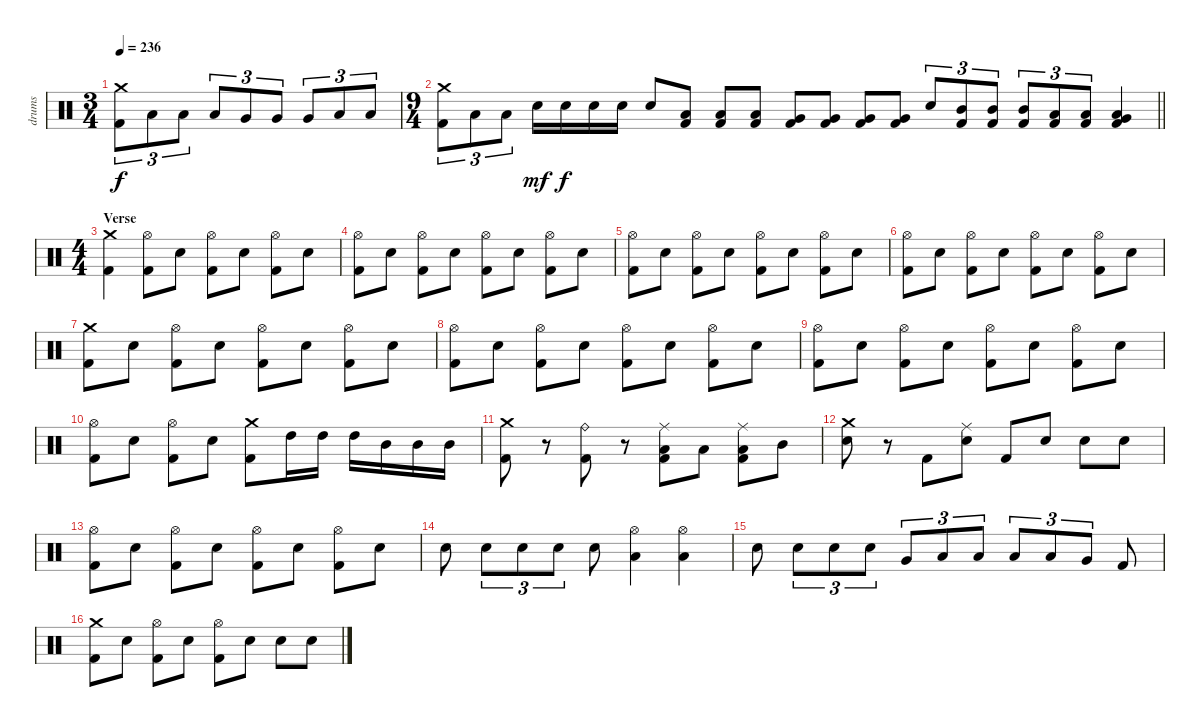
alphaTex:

\track ("drums" "drums") {instrument percussion}
\staff {score}
\articulation defaults
\ts (3 4)
\tempo 236
\clef neutral
\ks c
("Crash medium (hit)" "Kick (hit) 2").8{tu (3 2) dy f} "Low Tom (hit)".8{tu (3 2)} "Low Tom (hit)".8{tu (3 2)} "Low Tom (hit)".8{tu (3 2)} "Very Low Tom (hit)".8{tu (3 2)} "Very Low Tom (hit)".8{tu (3 2)} "Very Low Tom (hit)".8{tu (3 2)} "Low Floor Tom (hit)".8{tu (3 2)} "Low Floor Tom (hit)".8{tu (3 2)} |
\ts (9 4)
\barLineRight lightlight
("Crash medium (hit)" "Kick (hit) 2").8{tu (3 2)} "Low Tom (hit)".8{tu (3 2)} "Low Tom (hit)".8{tu (3 2)} "Electric Snare (hit)".16{dy mf} "Electric Snare (hit)".16{dy f} "Electric Snare (hit)".16 "Electric Snare (hit)".16 "Electric Snare (hit)".8 ("Low Tom (hit)" "Kick (hit) 2").8 ("Low Tom (hit)" "Kick (hit) 2").8 ("Low Tom (hit)" "Kick (hit) 2").8 ("Very Low Tom (hit)" "Kick (hit) 2").8 ("Very Low Tom (hit)" "Kick (hit) 2").8 ("Very Low Tom (hit)" "Kick (hit) 2").8 ("Very Low Tom (hit)" "Kick (hit) 2").8 "Electric Snare (hit)".8{tu (3 2)} ("Mid Tom (hit)" "Kick (hit) 2").8{tu (3 2)} ("Mid Tom (hit)" "Kick (hit) 2").8{tu (3 2)} ("Mid Tom (hit)" "Kick (hit) 2").8{tu (3 2)} ("Low Tom (hit)" "Kick (hit) 2").8{tu (3 2)} ("Low Tom (hit)" "Kick (hit) 2").8{tu (3 2)} ("Low Tom (hit)" "Very Low Tom (hit)" "Kick (hit) 2").4 |
\ts (4 4)
\section ("" "Verse")
("Crash medium (hit)" "Kick (hit) 2").4 ("Hi-Hat (open)" "Kick (hit) 2").8 "Electric Snare (hit)".8 ("Hi-Hat (open)" "Kick (hit) 2").8 "Electric Snare (hit)".8 ("Hi-Hat (open)" "Kick (hit) 2").8 "Electric Snare (hit)".8 |
("Hi-Hat (open)" "Kick (hit) 2").8 "Electric Snare (hit)".8 ("Hi-Hat (open)" "Kick (hit) 2").8 "Electric Snare (hit)".8 ("Hi-Hat (open)" "Kick (hit) 2").8 "Electric Snare (hit)".8 ("Hi-Hat (open)" "Kick (hit) 2").8 "Electric Snare (hit)".8 |
("Hi-Hat (open)" "Kick (hit) 2").8 "Electric Snare (hit)".8 ("Hi-Hat (open)" "Kick (hit) 2").8 "Electric Snare (hit)".8 ("Hi-Hat (open)" "Kick (hit) 2").8 "Electric Snare (hit)".8 ("Hi-Hat (open)" "Kick (hit) 2").8 "Electric Snare (hit)".8 |
("Hi-Hat (open)" "Kick (hit) 2").8 "Electric Snare (hit)".8 ("Hi-Hat (open)" "Kick (hit) 2").8 "Electric Snare (hit)".8 ("Hi-Hat (open)" "Kick (hit) 2").8 "Electric Snare (hit)".8 ("Hi-Hat (open)" "Kick (hit) 2").8 "Electric Snare (hit)".8 |
("Crash medium (hit)" "Kick (hit) 2").8 "Electric Snare (hit)".8 ("Hi-Hat (open)" "Kick (hit) 2").8 "Electric Snare (hit)".8 ("Hi-Hat (open)" "Kick (hit) 2").8 "Electric Snare (hit)".8 ("Hi-Hat (open)" "Kick (hit) 2").8 "Electric Snare (hit)".8 |
("Hi-Hat (open)" "Kick (hit) 2").8 "Electric Snare (hit)".8 ("Hi-Hat (open)" "Kick (hit) 2").8 "Electric Snare (hit)".8 ("Hi-Hat (open)" "Kick (hit) 2").8 "Electric Snare (hit)".8 ("Hi-Hat (open)" "Kick (hit) 2").8 "Electric Snare (hit)".8 |
("Hi-Hat (open)" "Kick (hit) 2").8 "Electric Snare (hit)".8 ("Hi-Hat (open)" "Kick (hit) 2").8 "Electric Snare (hit)".8 ("Hi-Hat (open)" "Kick (hit) 2").8 "Electric Snare (hit)".8 ("Hi-Hat (open)" "Kick (hit) 2").8 "Electric Snare (hit)".8 |
("Hi-Hat (open)" "Kick (hit) 2").8 "Electric Snare (hit)".8 ("Hi-Hat (open)" "Kick (hit) 2").8 "Electric Snare (hit)".8 ("Crash medium (hit)" "Kick (hit) 2").8 "High Tom (hit)".16 "High Tom (hit)".16 "High Tom (hit)".16 "Mid Tom (hit)".16 "Mid Tom (hit)".16 "Mid Tom (hit)".16 |
("Crash medium (hit)" "Kick (hit) 2").8 r.8 ("Ride (bell)" "Kick (hit) 2").8 r.8 ("Ride (middle)" "Low Tom (hit)" "Kick (hit) 2").8 "Low Tom (hit)".8 ("Ride (middle)" "Low Tom (hit)" "Kick (hit) 2").8 "Mid Tom (hit)".8 |
("Crash medium (hit)" "Electric Snare (hit)").8 r.8 "Kick (hit) 2".8 ("Ride (middle)" "Electric Snare (hit)").8 "Kick (hit) 2".8 "Electric Snare (hit)".8 "Electric Snare (hit)".8 "Electric Snare (hit)".8 |
("Hi-Hat (open)" "Kick (hit) 2").8 "Electric Snare (hit)".8 ("Hi-Hat (open)" "Kick (hit) 2").8 "Electric Snare (hit)".8 ("Hi-Hat (open)" "Kick (hit) 2").8 "Electric Snare (hit)".8 ("Hi-Hat (open)" "Kick (hit) 2").8 "Electric Snare (hit)".8 |
"Electric Snare (hit)".8 "Electric Snare (hit)".8{tu (3 2)} "Electric Snare (hit)".8{tu (3 2)} "Electric Snare (hit)".8{tu (3 2)} "Electric Snare (hit)".8 ("Hi-Hat (open)" "Low Tom (hit)").4 ("Hi-Hat (open)" "Low Tom (hit)").4 |
"Electric Snare (hit)".8 "Electric Snare (hit)".8{tu (3 2)} "Electric Snare (hit)".8{tu (3 2)} "Electric Snare (hit)".8{tu (3 2)} "Very Low Tom (hit)".8{tu (3 2)} "Low Tom (hit)".8{tu (3 2)} "Low Tom (hit)".8{tu (3 2)} "Low Tom (hit)".8{tu (3 2)} "Low Tom (hit)".8{tu (3 2)} "Very Low Tom (hit)".8{tu (3 2)} "Kick (hit) 2".8 |
("Crash medium (hit)" "Kick (hit) 2").8 "Electric Snare (hit)".8 ("Hi-Hat (open)" "Kick (hit) 2").8 "Electric Snare (hit)".8 ("Hi-Hat (open)" "Kick (hit) 2").8 "Electric Snare (hit)".8 "Electric Snare (hit)".8 "Electric Snare (hit)".8
